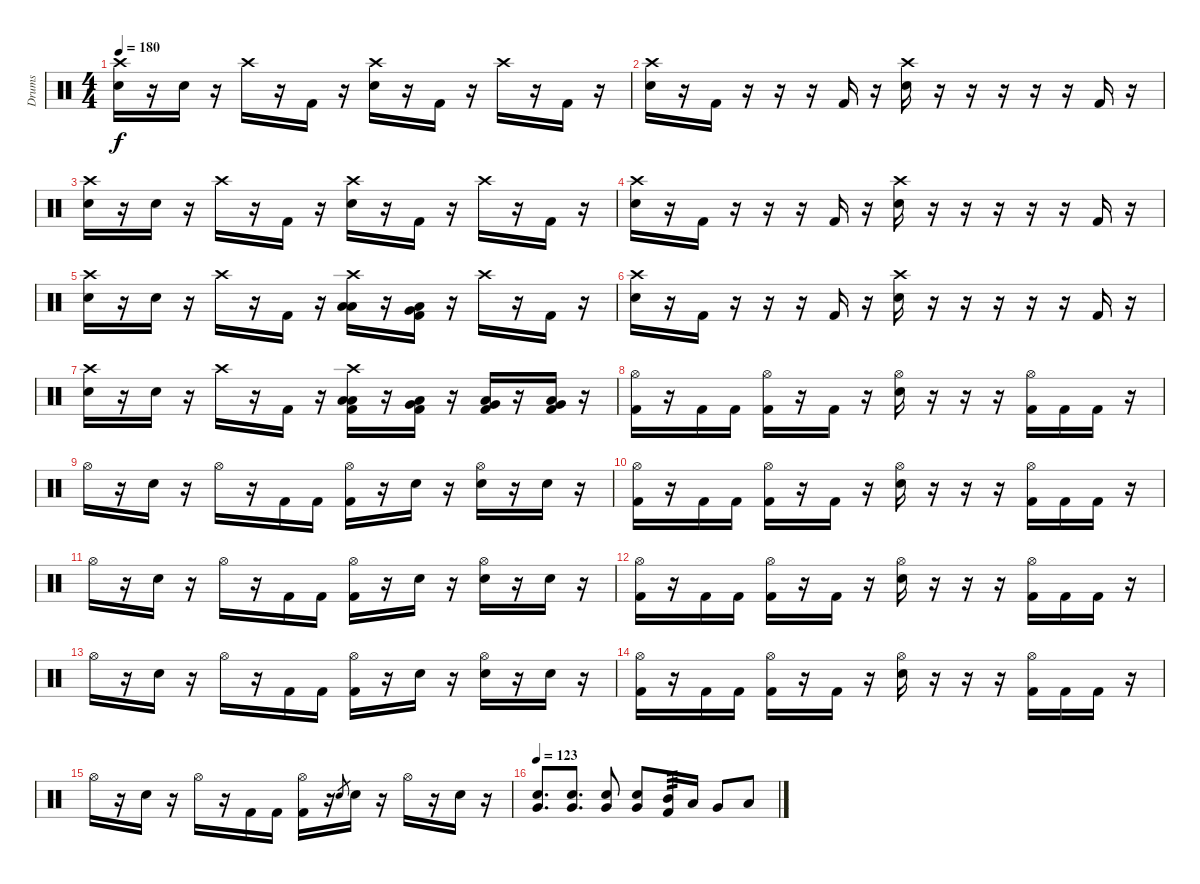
\track ("Drums" "Drums") {instrument percussion}
\staff {score}
\articulation defaults
\ts (4 4)
\tempo 180
\clef neutral
\ks c
("Crash high (hit)" "Electric Snare (hit)").16{dy f} r.16 "Electric Snare (hit)".16 r.16 "Crash high (hit)".16 r.16 "Kick (hit) 2".16 r.16 ("Crash high (hit)" "Electric Snare (hit)").16 r.16 "Kick (hit) 2".16 r.16 "Crash high (hit)".16 r.16 "Kick (hit) 2".16 r.16 |
("Crash high (hit)" "Electric Snare (hit)").16 r.16 "Kick (hit) 2".16 r.16 r.16 r.16 "Kick (hit) 2".16 r.16 ("Crash high (hit)" "Electric Snare (hit)").16 r.16 r.16 r.16 r.16 r.16 "Kick (hit) 2".16 r.16 |
("Crash high (hit)" "Electric Snare (hit)").16 r.16 "Electric Snare (hit)".16 r.16 "Crash high (hit)".16 r.16 "Kick (hit) 2".16 r.16 ("Crash high (hit)" "Electric Snare (hit)").16 r.16 "Kick (hit) 2".16 r.16 "Crash high (hit)".16 r.16 "Kick (hit) 2".16 r.16 |
("Crash high (hit)" "Electric Snare (hit)").16 r.16 "Kick (hit) 2".16 r.16 r.16 r.16 "Kick (hit) 2".16 r.16 ("Crash high (hit)" "Electric Snare (hit)").16 r.16 r.16 r.16 r.16 r.16 "Kick (hit) 2".16 r.16 |
("Crash high (hit)" "Electric Snare (hit)").16 r.16 "Electric Snare (hit)".16 r.16 "Crash high (hit)".16 r.16 "Kick (hit) 2".16 r.16 ("Crash high (hit)" "Low Tom (hit)" "Low Floor Tom (hit)").16 r.16 ("Low Floor Tom (hit)" "Very Low Tom (hit)" "Kick (hit) 2").16 r.16 "Crash high (hit)".16 r.16 "Kick (hit) 2".16 r.16 |
("Crash high (hit)" "Electric Snare (hit)").16 r.16 "Kick (hit) 2".16 r.16 r.16 r.16 "Kick (hit) 2".16 r.16 ("Crash high (hit)" "Electric Snare (hit)").16 r.16 r.16 r.16 r.16 r.16 "Kick (hit) 2".16 r.16 |
("Crash high (hit)" "Electric Snare (hit)").16 r.16 "Electric Snare (hit)".16 r.16 "Crash high (hit)".16 r.16 "Kick (hit) 2".16 r.16 ("Crash high (hit)" "Low Tom (hit)" "Low Floor Tom (hit)" "Kick (hit) 2").16 r.16 ("Low Floor Tom (hit)" "Very Low Tom (hit)" "Kick (hit) 2").16 r.16 ("Very Low Tom (hit)" "Low Floor Tom (hit)" "Kick (hit) 2").16 r.16 ("Low Floor Tom (hit)" "Very Low Tom (hit)" "Kick (hit) 2").16 r.16 |
("Hi-Hat (open)" "Kick (hit) 2").16 r.16 "Kick (hit) 2".16 "Kick (hit) 2".16 ("Hi-Hat (open)" "Kick (hit) 2").16 r.16 "Kick (hit) 2".16 r.16 ("Hi-Hat (open)" "Electric Snare (hit)").16 r.16 r.16 r.16 ("Hi-Hat (open)" "Kick (hit) 2").16 "Kick (hit) 2".16 "Kick (hit) 2".16 r.16 |
"Hi-Hat (open)".16 r.16 "Electric Snare (hit)".16 r.16 "Hi-Hat (open)".16 r.16 "Kick (hit) 2".16 "Kick (hit) 2".16 ("Hi-Hat (open)" "Kick (hit) 2").16 r.16 "Electric Snare (hit)".16 r.16 ("Hi-Hat (open)" "Electric Snare (hit)").16 r.16 "Electric Snare (hit)".16 r.16 |
("Hi-Hat (open)" "Kick (hit) 2").16 r.16 "Kick (hit) 2".16 "Kick (hit) 2".16 ("Hi-Hat (open)" "Kick (hit) 2").16 r.16 "Kick (hit) 2".16 r.16 ("Hi-Hat (open)" "Electric Snare (hit)").16 r.16 r.16 r.16 ("Hi-Hat (open)" "Kick (hit) 2").16 "Kick (hit) 2".16 "Kick (hit) 2".16 r.16 |
"Hi-Hat (open)".16 r.16 "Electric Snare (hit)".16 r.16 "Hi-Hat (open)".16 r.16 "Kick (hit) 2".16 "Kick (hit) 2".16 ("Hi-Hat (open)" "Kick (hit) 2").16 r.16 "Electric Snare (hit)".16 r.16 ("Hi-Hat (open)" "Electric Snare (hit)").16 r.16 "Electric Snare (hit)".16 r.16 |
("Hi-Hat (open)" "Kick (hit) 2").16 r.16 "Kick (hit) 2".16 "Kick (hit) 2".16 ("Hi-Hat (open)" "Kick (hit) 2").16 r.16 "Kick (hit) 2".16 r.16 ("Hi-Hat (open)" "Electric Snare (hit)").16 r.16 r.16 r.16 ("Hi-Hat (open)" "Kick (hit) 2").16 "Kick (hit) 2".16 "Kick (hit) 2".16 r.16 |
"Hi-Hat (open)".16 r.16 "Electric Snare (hit)".16 r.16 "Hi-Hat (open)".16 r.16 "Kick (hit) 2".16 "Kick (hit) 2".16 ("Hi-Hat (open)" "Kick (hit) 2").16 r.16 "Electric Snare (hit)".16 r.16 ("Hi-Hat (open)" "Electric Snare (hit)").16 r.16 "Electric Snare (hit)".16 r.16 |
("Hi-Hat (open)" "Kick (hit) 2").16 r.16 "Kick (hit) 2".16 "Kick (hit) 2".16 ("Hi-Hat (open)" "Kick (hit) 2").16 r.16 "Kick (hit) 2".16 r.16 ("Hi-Hat (open)" "Electric Snare (hit)").16 r.16 r.16 r.16 ("Hi-Hat (open)" "Kick (hit) 2").16 "Kick (hit) 2".16 "Kick (hit) 2".16 r.16 |
"Hi-Hat (open)".16 r.16 "Electric Snare (hit)".16 r.16 "Hi-Hat (open)".16 r.16 "Kick (hit) 2".16 "Kick (hit) 2".16 ("Hi-Hat (open)" "Kick (hit) 2").16 r.16 "Electric Snare (hit)".8{gr} "Electric Snare (hit)".16 r.16 "Hi-Hat (open)".16 r.16 "Electric Snare (hit)".16 r.16 |
\tempo 123
("Very Low Tom (hit)" "Snare (hit) 2").8{d} ("Very Low Tom (hit)" "Snare (hit) 2").8{d} ("Very Low Tom (hit)" "Snare (hit) 2").8 ("Very Low Tom (hit)" "Snare (hit) 2").8 ("Mid Tom (hit)" "Kick (hit) 2").16{tp 3} "Low Tom (hit)".16 "Very Low Tom (hit)".8 "Low Floor Tom (hit)".8
